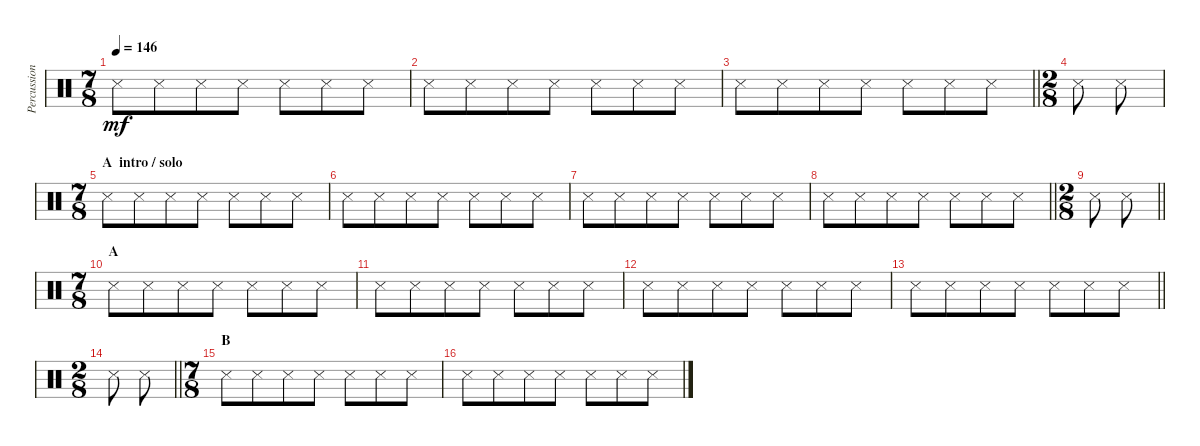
\track ("Percussion" "Percussion") {instrument percussion}
\staff {score}
\articulation defaults
\ts (7 8)
\tempo 146
\clef neutral
\ks c "Metronome (hit)".8{dy mf} "Metronome (hit)".8 "Metronome (hit)".8 "Metronome (hit)".8 "Metronome (hit)".8 "Metronome (hit)".8 "Metronome (hit)".8
|
"Metronome (hit)".8 "Metronome (hit)".8 "Metronome (hit)".8 "Metronome (hit)".8 "Metronome (hit)".8 "Metronome (hit)".8 "Metronome (hit)".8 |
\barLineRight lightlight "Metronome (hit)".8 "Metronome (hit)".8 "Metronome (hit)".8 "Metronome (hit)".8 "Metronome (hit)".8 "Metronome (hit)".8 "Metronome (hit)".8
|
\ts (2 8)
"Metronome (hit)".8 "Metronome (hit)".8 |
\ts (7 8)
\section ("" "A  intro / solo")
"Metronome (hit)".8 "Metronome (hit)".8 "Metronome (hit)".8 "Metronome (hit)".8 "Metronome (hit)".8 "Metronome (hit)".8 "Metronome (hit)".8 |
"Metronome (hit)".8 "Metronome (hit)".8 "Metronome (hit)".8 "Metronome (hit)".8 "Metronome (hit)".8 "Metronome (hit)".8 "Metronome (hit)".8 |
"Metronome (hit)".8 "Metronome (hit)".8 "Metronome (hit)".8 "Metronome (hit)".8 "Metronome (hit)".8 "Metronome (hit)".8 "Metronome (hit)".8 |
\barLineRight lightlight "Metronome (hit)".8 "Metronome (hit)".8 "Metronome (hit)".8 "Metronome (hit)".8 "Metronome (hit)".8 "Metronome (hit)".8 "Metronome (hit)".8
|
\ts (2 8)
\barLineRight lightlight "Metronome (hit)".8 "Metronome (hit)".8
|
\ts (7 8)
\section ("" "A")
"Metronome (hit)".8 "Metronome (hit)".8 "Metronome (hit)".8 "Metronome (hit)".8 "Metronome (hit)".8 "Metronome (hit)".8 "Metronome (hit)".8 |
"Metronome (hit)".8 "Metronome (hit)".8 "Metronome (hit)".8 "Metronome (hit)".8 "Metronome (hit)".8 "Metronome (hit)".8 "Metronome (hit)".8 |
"Metronome (hit)".8 "Metronome (hit)".8 "Metronome (hit)".8 "Metronome (hit)".8 "Metronome (hit)".8 "Metronome (hit)".8 "Metronome (hit)".8 |
\barLineRight lightlight "Metronome (hit)".8 "Metronome (hit)".8 "Metronome (hit)".8 "Metronome (hit)".8 "Metronome (hit)".8 "Metronome (hit)".8 "Metronome (hit)".8
|
\ts (2 8)
\barLineRight lightlight "Metronome (hit)".8 "Metronome (hit)".8
|
\ts (7 8)
\section ("" "B")
"Metronome (hit)".8 "Metronome (hit)".8 "Metronome (hit)".8 "Metronome (hit)".8 "Metronome (hit)".8 "Metronome (hit)".8 "Metronome (hit)".8 |
"Metronome (hit)".8 "Metronome (hit)".8 "Metronome (hit)".8 "Metronome (hit)".8 "Metronome (hit)".8 "Metronome (hit)".8 "Metronome (hit)".8
